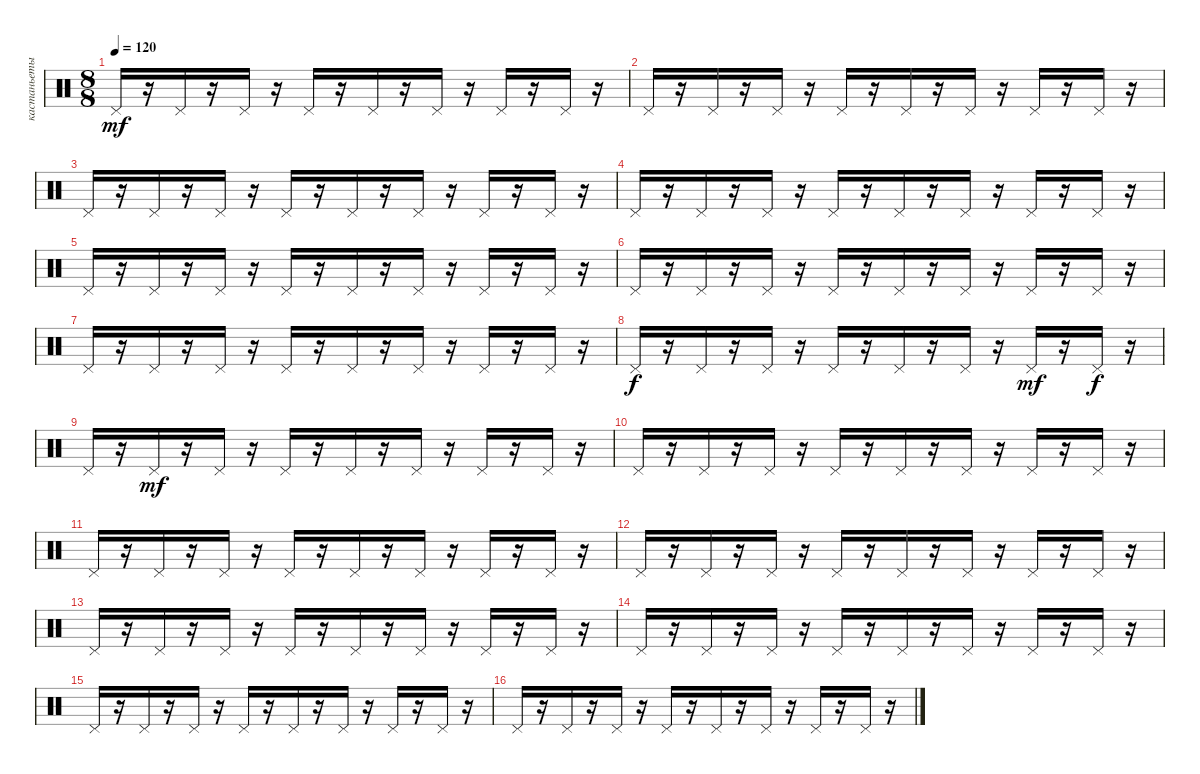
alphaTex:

\track ("кастаньеты" "кастаньеты") {instrument percussion}
\staff {score}
\articulation defaults
\ts (8 8)
\tempo 120
\clef neutral
\ks c "Pedal Hi-Hat (hit)".16{dy mf}
r.16 "Pedal Hi-Hat (hit)".16 r.16 "Pedal Hi-Hat (hit)".16 r.16 "Pedal Hi-Hat (hit)".16 r.16 "Pedal Hi-Hat (hit)".16 r.16 "Pedal Hi-Hat (hit)".16 r.16 "Pedal Hi-Hat (hit)".16 r.16 "Pedal Hi-Hat (hit)".16 r.16 |
"Pedal Hi-Hat (hit)".16 r.16 "Pedal Hi-Hat (hit)".16 r.16 "Pedal Hi-Hat (hit)".16 r.16 "Pedal Hi-Hat (hit)".16 r.16 "Pedal Hi-Hat (hit)".16 r.16 "Pedal Hi-Hat (hit)".16 r.16 "Pedal Hi-Hat (hit)".16 r.16 "Pedal Hi-Hat (hit)".16 r.16 |
"Pedal Hi-Hat (hit)".16 r.16 "Pedal Hi-Hat (hit)".16 r.16 "Pedal Hi-Hat (hit)".16 r.16 "Pedal Hi-Hat (hit)".16 r.16 "Pedal Hi-Hat (hit)".16 r.16 "Pedal Hi-Hat (hit)".16 r.16 "Pedal Hi-Hat (hit)".16 r.16 "Pedal Hi-Hat (hit)".16 r.16 |
"Pedal Hi-Hat (hit)".16 r.16 "Pedal Hi-Hat (hit)".16 r.16 "Pedal Hi-Hat (hit)".16 r.16 "Pedal Hi-Hat (hit)".16 r.16 "Pedal Hi-Hat (hit)".16 r.16 "Pedal Hi-Hat (hit)".16 r.16 "Pedal Hi-Hat (hit)".16 r.16 "Pedal Hi-Hat (hit)".16 r.16 |
"Pedal Hi-Hat (hit)".16 r.16 "Pedal Hi-Hat (hit)".16 r.16 "Pedal Hi-Hat (hit)".16 r.16 "Pedal Hi-Hat (hit)".16 r.16 "Pedal Hi-Hat (hit)".16 r.16 "Pedal Hi-Hat (hit)".16 r.16 "Pedal Hi-Hat (hit)".16 r.16 "Pedal Hi-Hat (hit)".16 r.16 |
"Pedal Hi-Hat (hit)".16 r.16 "Pedal Hi-Hat (hit)".16 r.16 "Pedal Hi-Hat (hit)".16 r.16 "Pedal Hi-Hat (hit)".16 r.16 "Pedal Hi-Hat (hit)".16 r.16 "Pedal Hi-Hat (hit)".16 r.16 "Pedal Hi-Hat (hit)".16 r.16 "Pedal Hi-Hat (hit)".16 r.16 |
"Pedal Hi-Hat (hit)".16 r.16 "Pedal Hi-Hat (hit)".16 r.16 "Pedal Hi-Hat (hit)".16 r.16 "Pedal Hi-Hat (hit)".16 r.16 "Pedal Hi-Hat (hit)".16 r.16 "Pedal Hi-Hat (hit)".16 r.16 "Pedal Hi-Hat (hit)".16 r.16 "Pedal Hi-Hat (hit)".16 r.16 |
"Pedal Hi-Hat (hit)".16{dy f} r.16 "Pedal Hi-Hat (hit)".16 r.16 "Pedal Hi-Hat (hit)".16 r.16 "Pedal Hi-Hat (hit)".16 r.16 "Pedal Hi-Hat (hit)".16 r.16 "Pedal Hi-Hat (hit)".16 r.16 "Pedal Hi-Hat (hit)".16{dy mf} r.16 "Pedal Hi-Hat (hit)".16{dy f} r.16 |
"Pedal Hi-Hat (hit)".16 r.16 "Pedal Hi-Hat (hit)".16{dy mf} r.16 "Pedal Hi-Hat (hit)".16 r.16 "Pedal Hi-Hat (hit)".16 r.16 "Pedal Hi-Hat (hit)".16 r.16 "Pedal Hi-Hat (hit)".16 r.16 "Pedal Hi-Hat (hit)".16 r.16 "Pedal Hi-Hat (hit)".16 r.16 |
"Pedal Hi-Hat (hit)".16 r.16 "Pedal Hi-Hat (hit)".16 r.16 "Pedal Hi-Hat (hit)".16 r.16 "Pedal Hi-Hat (hit)".16 r.16 "Pedal Hi-Hat (hit)".16 r.16 "Pedal Hi-Hat (hit)".16 r.16 "Pedal Hi-Hat (hit)".16 r.16 "Pedal Hi-Hat (hit)".16 r.16 |
"Pedal Hi-Hat (hit)".16 r.16 "Pedal Hi-Hat (hit)".16 r.16 "Pedal Hi-Hat (hit)".16 r.16 "Pedal Hi-Hat (hit)".16 r.16 "Pedal Hi-Hat (hit)".16 r.16 "Pedal Hi-Hat (hit)".16 r.16 "Pedal Hi-Hat (hit)".16 r.16 "Pedal Hi-Hat (hit)".16 r.16 |
"Pedal Hi-Hat (hit)".16 r.16 "Pedal Hi-Hat (hit)".16 r.16 "Pedal Hi-Hat (hit)".16 r.16 "Pedal Hi-Hat (hit)".16 r.16 "Pedal Hi-Hat (hit)".16 r.16 "Pedal Hi-Hat (hit)".16 r.16 "Pedal Hi-Hat (hit)".16 r.16 "Pedal Hi-Hat (hit)".16 r.16 |
"Pedal Hi-Hat (hit)".16 r.16 "Pedal Hi-Hat (hit)".16 r.16 "Pedal Hi-Hat (hit)".16 r.16 "Pedal Hi-Hat (hit)".16 r.16 "Pedal Hi-Hat (hit)".16 r.16 "Pedal Hi-Hat (hit)".16 r.16 "Pedal Hi-Hat (hit)".16 r.16 "Pedal Hi-Hat (hit)".16 r.16 |
"Pedal Hi-Hat (hit)".16 r.16 "Pedal Hi-Hat (hit)".16 r.16 "Pedal Hi-Hat (hit)".16 r.16 "Pedal Hi-Hat (hit)".16 r.16 "Pedal Hi-Hat (hit)".16 r.16 "Pedal Hi-Hat (hit)".16 r.16 "Pedal Hi-Hat (hit)".16 r.16 "Pedal Hi-Hat (hit)".16 r.16 |
"Pedal Hi-Hat (hit)".16 r.16 "Pedal Hi-Hat (hit)".16 r.16 "Pedal Hi-Hat (hit)".16 r.16 "Pedal Hi-Hat (hit)".16 r.16 "Pedal Hi-Hat (hit)".16 r.16 "Pedal Hi-Hat (hit)".16 r.16 "Pedal Hi-Hat (hit)".16 r.16 "Pedal Hi-Hat (hit)".16 r.16 |
"Pedal Hi-Hat (hit)".16 r.16 "Pedal Hi-Hat (hit)".16 r.16 "Pedal Hi-Hat (hit)".16 r.16 "Pedal Hi-Hat (hit)".16 r.16 "Pedal Hi-Hat (hit)".16 r.16 "Pedal Hi-Hat (hit)".16 r.16 "Pedal Hi-Hat (hit)".16 r.16 "Pedal Hi-Hat (hit)".16 r.16
